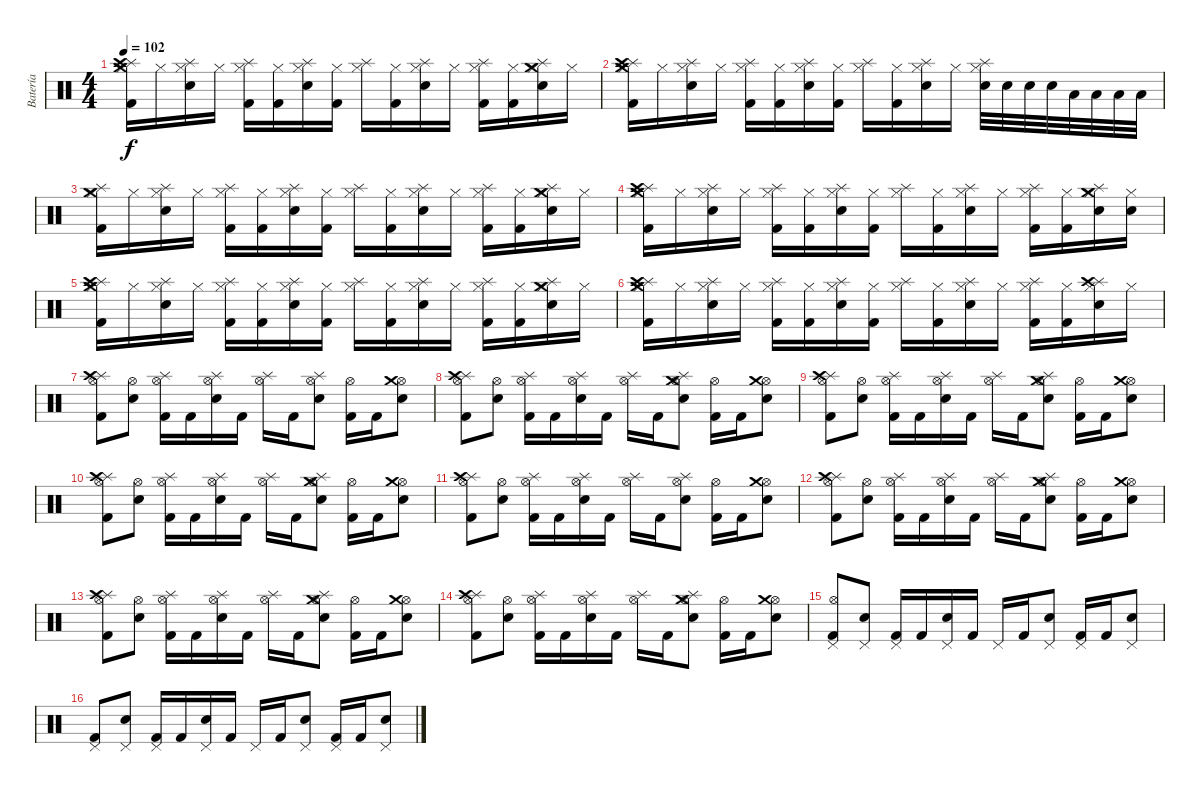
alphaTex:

\track ("Batería" "Batería") {instrument percussion}
\staff {score}
\articulation defaults
\ts (4 4)
\tempo 102
\clef neutral
\ks c
("Hi-Hat (closed)" "Splash (hit)" "Kick (hit) 2" "Crash high (hit)" "Crash medium (hit)").16{dy f} "Hi-Hat (closed)".16 ("Hi-Hat (closed)" "Splash (hit)" "Snare (hit) 2").16 "Hi-Hat (closed)".16 ("Hi-Hat (closed)" "Splash (hit)" "Kick (hit) 2").16 ("Hi-Hat (closed)" "Kick (hit) 2").16 ("Hi-Hat (closed)" "Splash (hit)" "Snare (hit) 2").16 ("Hi-Hat (closed)" "Kick (hit) 2").16 ("Hi-Hat (closed)" "Splash (hit)").16 ("Hi-Hat (closed)" "Kick (hit) 2").16 ("Hi-Hat (closed)" "Splash (hit)" "Snare (hit) 2").16 "Hi-Hat (closed)".16 ("Hi-Hat (closed)" "Splash (hit)" "Kick (hit) 2").16 ("Hi-Hat (closed)" "Kick (hit) 2").16 ("Hi-Hat (closed)" "Splash (hit)" "Snare (hit) 2" "Crash medium (hit)").16 "Hi-Hat (closed)".16 |
("Hi-Hat (closed)" "Splash (hit)" "Kick (hit) 2" "Crash high (hit)" "Crash medium (hit)").16 "Hi-Hat (closed)".16 ("Hi-Hat (closed)" "Splash (hit)" "Snare (hit) 2").16 "Hi-Hat (closed)".16 ("Hi-Hat (closed)" "Splash (hit)" "Kick (hit) 2").16 ("Hi-Hat (closed)" "Kick (hit) 2").16 ("Hi-Hat (closed)" "Splash (hit)" "Snare (hit) 2").16 ("Hi-Hat (closed)" "Kick (hit) 2").16 ("Hi-Hat (closed)" "Splash (hit)").16 ("Hi-Hat (closed)" "Kick (hit) 2").16 ("Hi-Hat (closed)" "Splash (hit)" "Snare (hit) 2").16 "Hi-Hat (closed)".16 ("Hi-Hat (closed)" "Splash (hit)" "Snare (hit) 2").32 "Snare (hit) 2".32 "Electric Snare (hit)".32 "Electric Snare (hit)".32 "Low Tom (hit)".32 "Low Tom (hit)".32 "Low Tom (hit)".32 "Low Tom (hit)".32 |
("Hi-Hat (closed)" "Splash (hit)" "Kick (hit) 2" "Crash medium (hit)").16 "Hi-Hat (closed)".16 ("Hi-Hat (closed)" "Splash (hit)" "Snare (hit) 2").16 "Hi-Hat (closed)".16 ("Hi-Hat (closed)" "Splash (hit)" "Kick (hit) 2").16 ("Hi-Hat (closed)" "Kick (hit) 2").16 ("Hi-Hat (closed)" "Splash (hit)" "Snare (hit) 2").16 ("Hi-Hat (closed)" "Kick (hit) 2").16 ("Hi-Hat (closed)" "Splash (hit)").16 ("Hi-Hat (closed)" "Kick (hit) 2").16 ("Hi-Hat (closed)" "Splash (hit)" "Snare (hit) 2").16 "Hi-Hat (closed)".16 ("Hi-Hat (closed)" "Splash (hit)" "Kick (hit) 2").16 ("Hi-Hat (closed)" "Kick (hit) 2").16 ("Hi-Hat (closed)" "Splash (hit)" "Snare (hit) 2" "Crash medium (hit)").16 "Hi-Hat (closed)".16 |
("Hi-Hat (closed)" "Splash (hit)" "Kick (hit) 2" "Crash high (hit)" "Crash medium (hit)").16 "Hi-Hat (closed)".16 ("Hi-Hat (closed)" "Splash (hit)" "Snare (hit) 2").16 "Hi-Hat (closed)".16 ("Hi-Hat (closed)" "Splash (hit)" "Kick (hit) 2").16 ("Hi-Hat (closed)" "Kick (hit) 2").16 ("Hi-Hat (closed)" "Splash (hit)" "Snare (hit) 2").16 ("Hi-Hat (closed)" "Kick (hit) 2").16 ("Hi-Hat (closed)" "Splash (hit)").16 ("Hi-Hat (closed)" "Kick (hit) 2").16 ("Hi-Hat (closed)" "Splash (hit)" "Snare (hit) 2").16 "Hi-Hat (closed)".16 ("Hi-Hat (closed)" "Splash (hit)" "Kick (hit) 2").16 ("Hi-Hat (closed)" "Kick (hit) 2").16 ("Hi-Hat (closed)" "Splash (hit)" "Snare (hit) 2" "Crash medium (hit)").16 ("Hi-Hat (closed)" "Snare (hit) 2").16 |
("Hi-Hat (closed)" "Splash (hit)" "Kick (hit) 2" "Crash high (hit)" "Crash medium (hit)").16 "Hi-Hat (closed)".16 ("Hi-Hat (closed)" "Splash (hit)" "Snare (hit) 2").16 "Hi-Hat (closed)".16 ("Hi-Hat (closed)" "Splash (hit)" "Kick (hit) 2").16 ("Hi-Hat (closed)" "Kick (hit) 2").16 ("Hi-Hat (closed)" "Splash (hit)" "Snare (hit) 2").16 ("Hi-Hat (closed)" "Kick (hit) 2").16 ("Hi-Hat (closed)" "Splash (hit)").16 ("Hi-Hat (closed)" "Kick (hit) 2").16 ("Hi-Hat (closed)" "Splash (hit)" "Snare (hit) 2").16 "Hi-Hat (closed)".16 ("Hi-Hat (closed)" "Splash (hit)" "Kick (hit) 2").16 ("Hi-Hat (closed)" "Kick (hit) 2").16 ("Hi-Hat (closed)" "Splash (hit)" "Snare (hit) 2" "Crash medium (hit)").16 "Hi-Hat (closed)".16 |
("Hi-Hat (closed)" "Splash (hit)" "Kick (hit) 2" "Crash high (hit)" "Crash medium (hit)").16 "Hi-Hat (closed)".16 ("Hi-Hat (closed)" "Splash (hit)" "Snare (hit) 2").16 "Hi-Hat (closed)".16 ("Hi-Hat (closed)" "Splash (hit)" "Kick (hit) 2").16 ("Hi-Hat (closed)" "Kick (hit) 2").16 ("Hi-Hat (closed)" "Splash (hit)" "Snare (hit) 2").16 ("Hi-Hat (closed)" "Kick (hit) 2").16 ("Hi-Hat (closed)" "Splash (hit)").16 ("Hi-Hat (closed)" "Kick (hit) 2").16 ("Hi-Hat (closed)" "Splash (hit)" "Snare (hit) 2").16 "Hi-Hat (closed)".16 ("Hi-Hat (closed)" "Splash (hit)" "Kick (hit) 2").16 ("Hi-Hat (closed)" "Kick (hit) 2").16 ("Hi-Hat (closed)" "Splash (hit)" "Snare (hit) 2" "Crash high (hit)").16 "Hi-Hat (closed)".16 |
("Hi-Hat (open)" "Splash (hit)" "Kick (hit) 2" "Crash high (hit)").8 ("Hi-Hat (open)" "Snare (hit) 2").8 ("Hi-Hat (open)" "Splash (hit)" "Kick (hit) 2").16 "Kick (hit) 2".16 ("Hi-Hat (open)" "Snare (hit) 2" "Splash (hit)").16 "Kick (hit) 2".16 ("Hi-Hat (open)" "Splash (hit)").16 "Kick (hit) 2".16 ("Hi-Hat (open)" "Snare (hit) 2" "Splash (hit)").8 ("Hi-Hat (open)" "Kick (hit) 2").16 "Kick (hit) 2".16 ("Hi-Hat (open)" "Snare (hit) 2" "Crash medium (hit)").8 |
("Hi-Hat (open)" "Splash (hit)" "Kick (hit) 2" "Crash high (hit)").8 ("Hi-Hat (open)" "Snare (hit) 2").8 ("Hi-Hat (open)" "Splash (hit)" "Kick (hit) 2").16 "Kick (hit) 2".16 ("Hi-Hat (open)" "Snare (hit) 2" "Splash (hit)").16 "Kick (hit) 2".16 ("Hi-Hat (open)" "Splash (hit)").16 "Kick (hit) 2".16 ("Hi-Hat (open)" "Snare (hit) 2" "Splash (hit)" "Crash medium (hit)").8 ("Hi-Hat (open)" "Kick (hit) 2").16 "Kick (hit) 2".16 ("Hi-Hat (open)" "Snare (hit) 2" "Crash medium (hit)").8 |
("Hi-Hat (open)" "Splash (hit)" "Kick (hit) 2" "Crash high (hit)").8 ("Hi-Hat (open)" "Snare (hit) 2").8 ("Hi-Hat (open)" "Splash (hit)" "Kick (hit) 2").16 "Kick (hit) 2".16 ("Hi-Hat (open)" "Snare (hit) 2" "Splash (hit)").16 "Kick (hit) 2".16 ("Hi-Hat (open)" "Splash (hit)").16 "Kick (hit) 2".16 ("Hi-Hat (open)" "Snare (hit) 2" "Splash (hit)" "Crash medium (hit)").8 ("Hi-Hat (open)" "Kick (hit) 2").16 "Kick (hit) 2".16 ("Hi-Hat (open)" "Snare (hit) 2" "Crash medium (hit)").8 |
("Hi-Hat (open)" "Splash (hit)" "Kick (hit) 2" "Crash high (hit)").8 ("Hi-Hat (open)" "Snare (hit) 2").8 ("Hi-Hat (open)" "Splash (hit)" "Kick (hit) 2").16 "Kick (hit) 2".16 ("Hi-Hat (open)" "Snare (hit) 2" "Splash (hit)").16 "Kick (hit) 2".16 ("Hi-Hat (open)" "Splash (hit)").16 "Kick (hit) 2".16 ("Hi-Hat (open)" "Snare (hit) 2" "Splash (hit)" "Crash medium (hit)").8 ("Hi-Hat (open)" "Kick (hit) 2").16 "Kick (hit) 2".16 ("Hi-Hat (open)" "Snare (hit) 2" "Crash medium (hit)").8 |
("Hi-Hat (open)" "Splash (hit)" "Kick (hit) 2" "Crash high (hit)").8 ("Hi-Hat (open)" "Snare (hit) 2").8 ("Hi-Hat (open)" "Splash (hit)" "Kick (hit) 2").16 "Kick (hit) 2".16 ("Hi-Hat (open)" "Snare (hit) 2" "Splash (hit)").16 "Kick (hit) 2".16 ("Hi-Hat (open)" "Splash (hit)").16 "Kick (hit) 2".16 ("Hi-Hat (open)" "Snare (hit) 2" "Splash (hit)").8 ("Hi-Hat (open)" "Kick (hit) 2").16 "Kick (hit) 2".16 ("Hi-Hat (open)" "Snare (hit) 2" "Crash medium (hit)").8 |
("Hi-Hat (open)" "Splash (hit)" "Kick (hit) 2" "Crash high (hit)").8 ("Hi-Hat (open)" "Snare (hit) 2").8 ("Hi-Hat (open)" "Splash (hit)" "Kick (hit) 2").16 "Kick (hit) 2".16 ("Hi-Hat (open)" "Snare (hit) 2" "Splash (hit)").16 "Kick (hit) 2".16 ("Hi-Hat (open)" "Splash (hit)").16 "Kick (hit) 2".16 ("Hi-Hat (open)" "Snare (hit) 2" "Splash (hit)" "Crash medium (hit)").8 ("Hi-Hat (open)" "Kick (hit) 2").16 "Kick (hit) 2".16 ("Hi-Hat (open)" "Snare (hit) 2" "Crash medium (hit)").8 |
("Hi-Hat (open)" "Splash (hit)" "Kick (hit) 2" "Crash high (hit)").8 ("Hi-Hat (open)" "Snare (hit) 2").8 ("Hi-Hat (open)" "Splash (hit)" "Kick (hit) 2").16 "Kick (hit) 2".16 ("Hi-Hat (open)" "Snare (hit) 2" "Splash (hit)").16 "Kick (hit) 2".16 ("Hi-Hat (open)" "Splash (hit)").16 "Kick (hit) 2".16 ("Hi-Hat (open)" "Snare (hit) 2" "Splash (hit)" "Crash medium (hit)").8 ("Hi-Hat (open)" "Kick (hit) 2").16 "Kick (hit) 2".16 ("Hi-Hat (open)" "Snare (hit) 2" "Crash medium (hit)").8 |
("Hi-Hat (open)" "Splash (hit)" "Kick (hit) 2" "Crash high (hit)").8 ("Hi-Hat (open)" "Snare (hit) 2").8 ("Hi-Hat (open)" "Splash (hit)" "Kick (hit) 2").16 "Kick (hit) 2".16 ("Hi-Hat (open)" "Snare (hit) 2" "Splash (hit)").16 "Kick (hit) 2".16 ("Hi-Hat (open)" "Splash (hit)").16 "Kick (hit) 2".16 ("Hi-Hat (open)" "Snare (hit) 2" "Splash (hit)" "Crash medium (hit)").8 ("Hi-Hat (open)" "Kick (hit) 2").16 "Kick (hit) 2".16 ("Hi-Hat (open)" "Snare (hit) 2" "Crash medium (hit)").8 |
("Pedal Hi-Hat (hit)" "Hi-Hat (open)" "Kick (hit) 2").8 ("Pedal Hi-Hat (hit)" "Snare (hit) 2").8 ("Pedal Hi-Hat (hit)" "Kick (hit) 2").16 "Kick (hit) 2".16 ("Pedal Hi-Hat (hit)" "Snare (hit) 2").16 "Kick (hit) 2".16 "Pedal Hi-Hat (hit)".16 "Kick (hit) 2".16 ("Pedal Hi-Hat (hit)" "Snare (hit) 2").8 ("Pedal Hi-Hat (hit)" "Kick (hit) 2").16 "Kick (hit) 2".16 ("Pedal Hi-Hat (hit)" "Snare (hit) 2").8 |
("Pedal Hi-Hat (hit)" "Kick (hit) 2").8 ("Pedal Hi-Hat (hit)" "Snare (hit) 2").8 ("Pedal Hi-Hat (hit)" "Kick (hit) 2").16 "Kick (hit) 2".16 ("Pedal Hi-Hat (hit)" "Snare (hit) 2").16 "Kick (hit) 2".16 "Pedal Hi-Hat (hit)".16 "Kick (hit) 2".16 ("Pedal Hi-Hat (hit)" "Snare (hit) 2").8 ("Pedal Hi-Hat (hit)" "Kick (hit) 2").16 "Kick (hit) 2".16 ("Pedal Hi-Hat (hit)" "Snare (hit) 2").8
